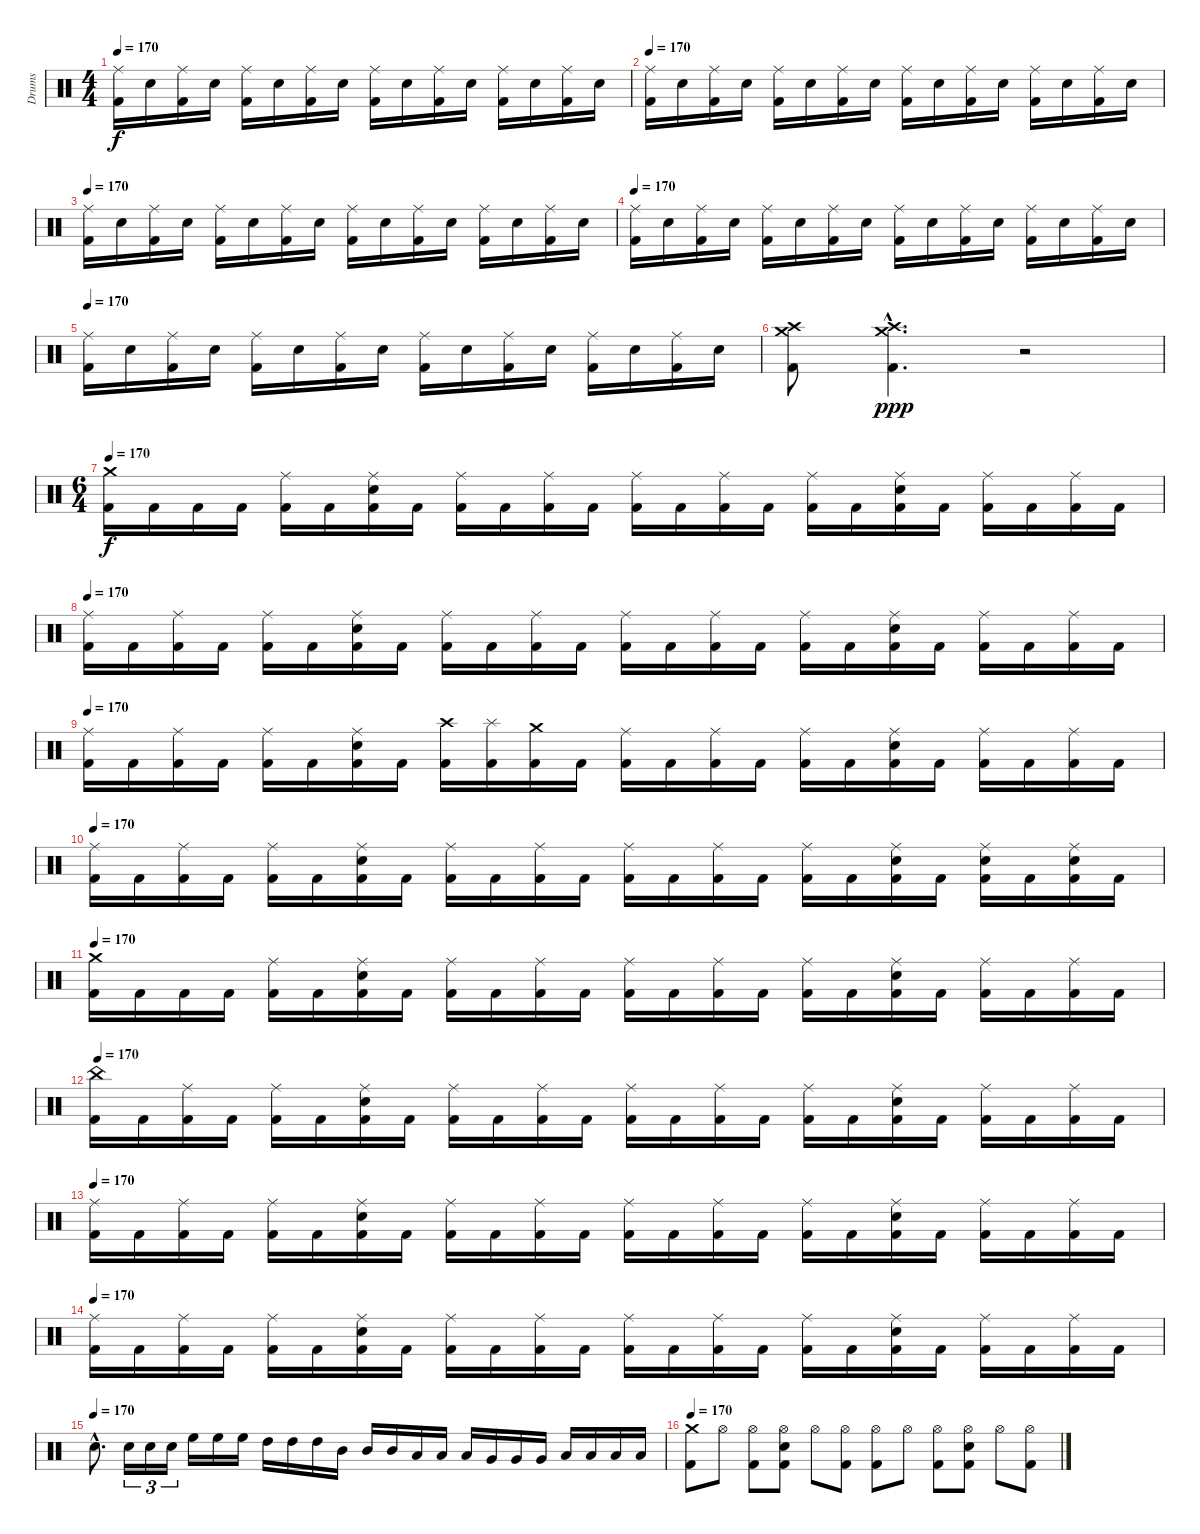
\track ("Drums" "Drums") {instrument percussion}
\staff {score}
\articulation defaults
\ts (4 4)
\tempo 170
\clef neutral
\ks c
("Ride (middle)" "Kick (hit) 2").16{dy f} "Snare (hit) 2".16 ("Ride (middle)" "Kick (hit) 2").16 "Snare (hit) 2".16 ("Ride (middle)" "Kick (hit) 2").16 "Snare (hit) 2".16 ("Ride (middle)" "Kick (hit) 2").16 "Snare (hit) 2".16 ("Ride (middle)" "Kick (hit) 2").16 "Snare (hit) 2".16 ("Ride (middle)" "Kick (hit) 2").16 "Snare (hit) 2".16 ("Ride (middle)" "Kick (hit) 2").16 "Snare (hit) 2".16 ("Ride (middle)" "Kick (hit) 2").16 "Snare (hit) 2".16 |
\tempo 170
("Ride (middle)" "Kick (hit) 2").16 "Snare (hit) 2".16 ("Ride (middle)" "Kick (hit) 2").16 "Snare (hit) 2".16 ("Ride (middle)" "Kick (hit) 2").16 "Snare (hit) 2".16 ("Ride (middle)" "Kick (hit) 2").16 "Snare (hit) 2".16 ("Ride (middle)" "Kick (hit) 2").16 "Snare (hit) 2".16 ("Ride (middle)" "Kick (hit) 2").16 "Snare (hit) 2".16 ("Ride (middle)" "Kick (hit) 2").16 "Snare (hit) 2".16 ("Ride (middle)" "Kick (hit) 2").16 "Snare (hit) 2".16 |
\tempo 170
("Ride (middle)" "Kick (hit) 2").16 "Snare (hit) 2".16 ("Ride (middle)" "Kick (hit) 2").16 "Snare (hit) 2".16 ("Ride (middle)" "Kick (hit) 2").16 "Snare (hit) 2".16 ("Ride (middle)" "Kick (hit) 2").16 "Snare (hit) 2".16 ("Ride (middle)" "Kick (hit) 2").16 "Snare (hit) 2".16 ("Ride (middle)" "Kick (hit) 2").16 "Snare (hit) 2".16 ("Ride (middle)" "Kick (hit) 2").16 "Snare (hit) 2".16 ("Ride (middle)" "Kick (hit) 2").16 "Snare (hit) 2".16 |
\tempo 170
("Ride (middle)" "Kick (hit) 2").16 "Snare (hit) 2".16 ("Ride (middle)" "Kick (hit) 2").16 "Snare (hit) 2".16 ("Ride (middle)" "Kick (hit) 2").16 "Snare (hit) 2".16 ("Ride (middle)" "Kick (hit) 2").16 "Snare (hit) 2".16 ("Ride (middle)" "Kick (hit) 2").16 "Snare (hit) 2".16 ("Ride (middle)" "Kick (hit) 2").16 "Snare (hit) 2".16 ("Ride (middle)" "Kick (hit) 2").16 "Snare (hit) 2".16 ("Ride (middle)" "Kick (hit) 2").16 "Snare (hit) 2".16 |
\tempo 170
("Ride (middle)" "Kick (hit) 2").16 "Snare (hit) 2".16 ("Ride (middle)" "Kick (hit) 2").16 "Snare (hit) 2".16 ("Ride (middle)" "Kick (hit) 2").16 "Snare (hit) 2".16 ("Ride (middle)" "Kick (hit) 2").16 "Snare (hit) 2".16 ("Ride (middle)" "Kick (hit) 2").16 "Snare (hit) 2".16 ("Ride (middle)" "Kick (hit) 2").16 "Snare (hit) 2".16 ("Ride (middle)" "Kick (hit) 2").16 "Snare (hit) 2".16 ("Ride (middle)" "Kick (hit) 2").16 "Snare (hit) 2".16 |
("Crash medium (hit)" "Crash high (hit)" "Kick (hit) 2").8 ("Crash medium (hit)"{hac} "Crash high (hit)"{hac} "Kick (hit) 2"{hac}).4{d dy ppp} r.2 |
\ts (6 4)
\tempo 170
("Crash medium (hit)" "Kick (hit) 2").16{dy f} "Kick (hit) 2".16 "Kick (hit) 2".16 "Kick (hit) 2".16 ("Ride (middle)" "Kick (hit) 2").16 "Kick (hit) 2".16 ("Ride (middle)" "Snare (hit) 2" "Kick (hit) 2").16 "Kick (hit) 2".16 ("Ride (middle)" "Kick (hit) 2").16 "Kick (hit) 2".16 ("Ride (middle)" "Kick (hit) 2").16 "Kick (hit) 2".16 ("Ride (middle)" "Kick (hit) 2").16 "Kick (hit) 2".16 ("Ride (middle)" "Kick (hit) 2").16 "Kick (hit) 2".16 ("Ride (middle)" "Kick (hit) 2").16 "Kick (hit) 2".16 ("Ride (middle)" "Snare (hit) 2" "Kick (hit) 2").16 "Kick (hit) 2".16 ("Ride (middle)" "Kick (hit) 2").16 "Kick (hit) 2".16 ("Ride (middle)" "Kick (hit) 2").16 "Kick (hit) 2".16 |
\tempo 170
("Ride (middle)" "Kick (hit) 2").16 "Kick (hit) 2".16 ("Ride (middle)" "Kick (hit) 2").16 "Kick (hit) 2".16 ("Ride (middle)" "Kick (hit) 2").16 "Kick (hit) 2".16 ("Ride (middle)" "Snare (hit) 2" "Kick (hit) 2").16 "Kick (hit) 2".16 ("Ride (middle)" "Kick (hit) 2").16 "Kick (hit) 2".16 ("Ride (middle)" "Kick (hit) 2").16 "Kick (hit) 2".16 ("Ride (middle)" "Kick (hit) 2").16 "Kick (hit) 2".16 ("Ride (middle)" "Kick (hit) 2").16 "Kick (hit) 2".16 ("Ride (middle)" "Kick (hit) 2").16 "Kick (hit) 2".16 ("Ride (middle)" "Snare (hit) 2" "Kick (hit) 2").16 "Kick (hit) 2".16 ("Ride (middle)" "Kick (hit) 2").16 "Kick (hit) 2".16 ("Ride (middle)" "Kick (hit) 2").16 "Kick (hit) 2".16 |
\tempo 170
("Ride (middle)" "Kick (hit) 2").16 "Kick (hit) 2".16 ("Ride (middle)" "Kick (hit) 2").16 "Kick (hit) 2".16 ("Ride (middle)" "Kick (hit) 2").16 "Kick (hit) 2".16 ("Ride (middle)" "Snare (hit) 2" "Kick (hit) 2").16 "Kick (hit) 2".16 ("Crash high (hit)" "Kick (hit) 2").16 ("Splash (hit)" "Kick (hit) 2").16 ("Crash medium (hit)" "Kick (hit) 2").16 "Kick (hit) 2".16 ("Ride (middle)" "Kick (hit) 2").16 "Kick (hit) 2".16 ("Ride (middle)" "Kick (hit) 2").16 "Kick (hit) 2".16 ("Ride (middle)" "Kick (hit) 2").16 "Kick (hit) 2".16 ("Ride (middle)" "Snare (hit) 2" "Kick (hit) 2").16 "Kick (hit) 2".16 ("Ride (middle)" "Kick (hit) 2").16 "Kick (hit) 2".16 ("Ride (middle)" "Kick (hit) 2").16 "Kick (hit) 2".16 |
\tempo 170
("Ride (middle)" "Kick (hit) 2").16 "Kick (hit) 2".16 ("Ride (middle)" "Kick (hit) 2").16 "Kick (hit) 2".16 ("Ride (middle)" "Kick (hit) 2").16 "Kick (hit) 2".16 ("Ride (middle)" "Snare (hit) 2" "Kick (hit) 2").16 "Kick (hit) 2".16 ("Ride (middle)" "Kick (hit) 2").16 "Kick (hit) 2".16 ("Ride (middle)" "Kick (hit) 2").16 "Kick (hit) 2".16 ("Ride (middle)" "Kick (hit) 2").16 "Kick (hit) 2".16 ("Ride (middle)" "Kick (hit) 2").16 "Kick (hit) 2".16 ("Ride (middle)" "Kick (hit) 2").16 "Kick (hit) 2".16 ("Ride (middle)" "Snare (hit) 2" "Kick (hit) 2").16 "Kick (hit) 2".16 ("Ride (middle)" "Snare (hit) 2" "Kick (hit) 2").16 "Kick (hit) 2".16 ("Ride (middle)" "Snare (hit) 2" "Kick (hit) 2").16 "Kick (hit) 2".16 |
\tempo 170
("Crash medium (hit)" "Kick (hit) 2").16 "Kick (hit) 2".16 "Kick (hit) 2".16 "Kick (hit) 2".16 ("Ride (middle)" "Kick (hit) 2").16 "Kick (hit) 2".16 ("Ride (middle)" "Snare (hit) 2" "Kick (hit) 2").16 "Kick (hit) 2".16 ("Ride (middle)" "Kick (hit) 2").16 "Kick (hit) 2".16 ("Ride (middle)" "Kick (hit) 2").16 "Kick (hit) 2".16 ("Ride (middle)" "Kick (hit) 2").16 "Kick (hit) 2".16 ("Ride (middle)" "Kick (hit) 2").16 "Kick (hit) 2".16 ("Ride (middle)" "Kick (hit) 2").16 "Kick (hit) 2".16 ("Ride (middle)" "Snare (hit) 2" "Kick (hit) 2").16 "Kick (hit) 2".16 ("Ride (middle)" "Kick (hit) 2").16 "Kick (hit) 2".16 ("Ride (middle)" "Kick (hit) 2").16 "Kick (hit) 2".16 |
\tempo 170
("China (hit)" "Kick (hit) 2").16 "Kick (hit) 2".16 ("Ride (middle)" "Kick (hit) 2").16 "Kick (hit) 2".16 ("Ride (middle)" "Kick (hit) 2").16 "Kick (hit) 2".16 ("Ride (middle)" "Snare (hit) 2" "Kick (hit) 2").16 "Kick (hit) 2".16 ("Ride (middle)" "Kick (hit) 2").16 "Kick (hit) 2".16 ("Ride (middle)" "Kick (hit) 2").16 "Kick (hit) 2".16 ("Ride (middle)" "Kick (hit) 2").16 "Kick (hit) 2".16 ("Ride (middle)" "Kick (hit) 2").16 "Kick (hit) 2".16 ("Ride (middle)" "Kick (hit) 2").16 "Kick (hit) 2".16 ("Ride (middle)" "Snare (hit) 2" "Kick (hit) 2").16 "Kick (hit) 2".16 ("Ride (middle)" "Kick (hit) 2").16 "Kick (hit) 2".16 ("Ride (middle)" "Kick (hit) 2").16 "Kick (hit) 2".16 |
\tempo 170
("Ride (middle)" "Kick (hit) 2").16 "Kick (hit) 2".16 ("Ride (middle)" "Kick (hit) 2").16 "Kick (hit) 2".16 ("Ride (middle)" "Kick (hit) 2").16 "Kick (hit) 2".16 ("Ride (middle)" "Snare (hit) 2" "Kick (hit) 2").16 "Kick (hit) 2".16 ("Ride (middle)" "Kick (hit) 2").16 "Kick (hit) 2".16 ("Ride (middle)" "Kick (hit) 2").16 "Kick (hit) 2".16 ("Ride (middle)" "Kick (hit) 2").16 "Kick (hit) 2".16 ("Ride (middle)" "Kick (hit) 2").16 "Kick (hit) 2".16 ("Ride (middle)" "Kick (hit) 2").16 "Kick (hit) 2".16 ("Ride (middle)" "Snare (hit) 2" "Kick (hit) 2").16 "Kick (hit) 2".16 ("Ride (middle)" "Kick (hit) 2").16 "Kick (hit) 2".16 ("Ride (middle)" "Kick (hit) 2").16 "Kick (hit) 2".16 |
\tempo 170
("Ride (middle)" "Kick (hit) 2").16 "Kick (hit) 2".16 ("Ride (middle)" "Kick (hit) 2").16 "Kick (hit) 2".16 ("Ride (middle)" "Kick (hit) 2").16 "Kick (hit) 2".16 ("Ride (middle)" "Snare (hit) 2" "Kick (hit) 2").16 "Kick (hit) 2".16 ("Ride (middle)" "Kick (hit) 2").16 "Kick (hit) 2".16 ("Ride (middle)" "Kick (hit) 2").16 "Kick (hit) 2".16 ("Ride (middle)" "Kick (hit) 2").16 "Kick (hit) 2".16 ("Ride (middle)" "Kick (hit) 2").16 "Kick (hit) 2".16 ("Ride (middle)" "Kick (hit) 2").16 "Kick (hit) 2".16 ("Ride (middle)" "Snare (hit) 2" "Kick (hit) 2").16 "Kick (hit) 2".16 ("Ride (middle)" "Kick (hit) 2").16 "Kick (hit) 2".16 ("Ride (middle)" "Kick (hit) 2").16 "Kick (hit) 2".16 |
\tempo (170)
"Snare (hit) 2"{hac}.8{d} "Snare (hit) 2".16{tu (3 2)} "Snare (hit) 2".16{tu (3 2)} "Snare (hit) 2".16{tu (3 2)} "High Floor Tom (hit)".16 "High Floor Tom (hit)".16 "High Floor Tom (hit)".16 "High Tom (hit)".16 "High Tom (hit)".16 "High Tom (hit)".16 "Mid Tom (hit)".16 "Mid Tom (hit)".16 "Mid Tom (hit)".16 "Low Tom (hit)".16 "Low Tom (hit)".16 "Low Tom (hit)".16 "Very Low Tom (hit)".16 "Very Low Tom (hit)".16 "Very Low Tom (hit)".16 "Low Floor Tom (hit)".16 "Low Floor Tom (hit)".16 "Low Floor Tom (hit)".16 "Low Floor Tom (hit)".16 |
\tempo 170
("Crash medium (hit)" "Kick (hit) 2").8 "Hi-Hat (open)".8 ("Hi-Hat (open)" "Kick (hit) 2").8 ("Hi-Hat (open)" "Snare (hit) 2" "Kick (hit) 2").8 "Hi-Hat (open)".8 ("Hi-Hat (open)" "Kick (hit) 2").8 ("Hi-Hat (open)" "Kick (hit) 2").8 "Hi-Hat (open)".8 ("Hi-Hat (open)" "Kick (hit) 2").8 ("Hi-Hat (open)" "Snare (hit) 2" "Kick (hit) 2").8 "Hi-Hat (open)".8 ("Hi-Hat (open)" "Kick (hit) 2").8
